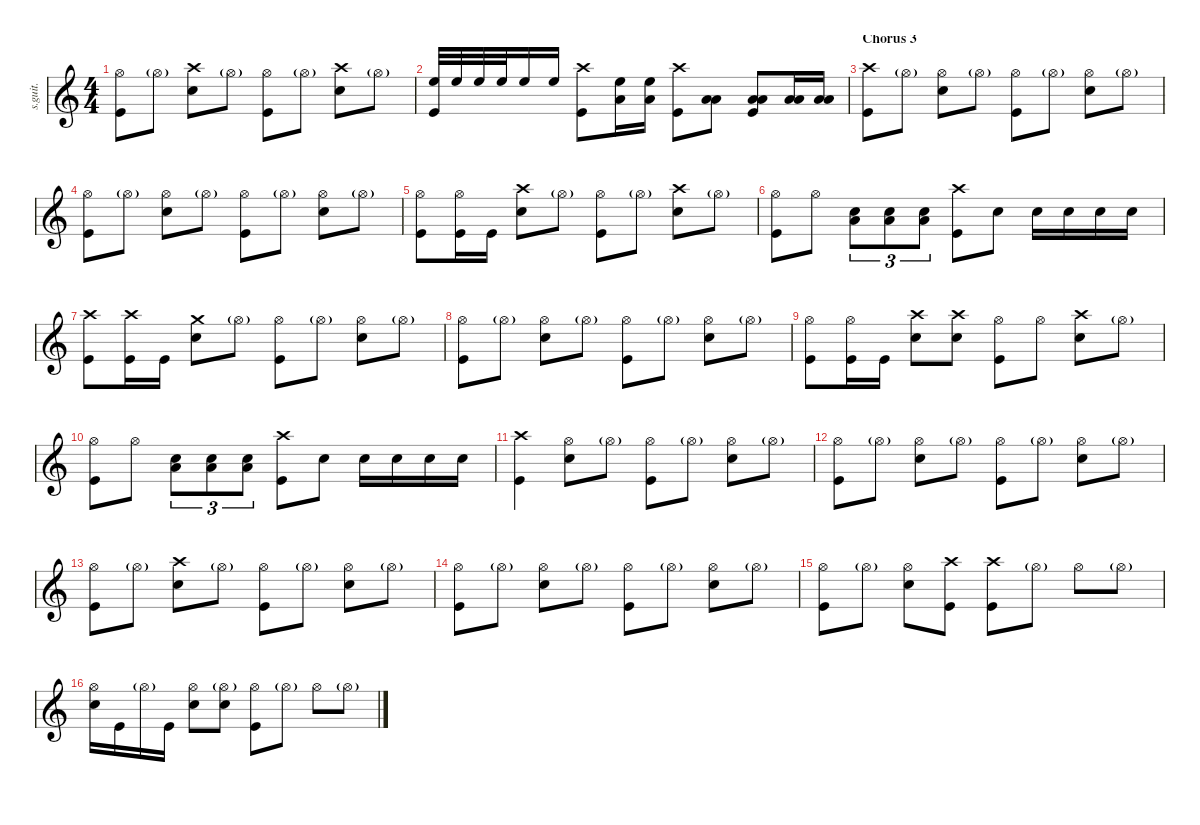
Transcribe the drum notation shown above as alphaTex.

\defaultSystemsLayout 4
\hideDynamics
\bracketExtendMode nobrackets
\track ("Lars Ulrich" "s.guit.") {instrument percussion}
\staff {score}
\articulation defaults
\ts (4 4)
\tempo (90 hide)
\clef g2
\ks c
("Hi-Hat (open)" "Kick (hit)").8{lyrics (0 "") lyrics (1 "") lyrics (2 "") lyrics (3 "") lyrics (4 "") dy f} "Hi-Hat (open)"{g}.8{lyrics (0 "") lyrics (1 "") lyrics (2 "") lyrics (3 "") lyrics (4 "") dy p} ("Crash high (hit)" "Snare (hit) 2").8{lyrics (0 "") lyrics (1 "") lyrics (2 "") lyrics (3 "") lyrics (4 "") dy f} "Hi-Hat (open)"{g}.8{lyrics (0 "") lyrics (1 "") lyrics (2 "") lyrics (3 "") lyrics (4 "") dy p} ("Hi-Hat (open)" "Kick (hit)").8{lyrics (0 "") lyrics (1 "") lyrics (2 "") lyrics (3 "") lyrics (4 "") dy f} "Hi-Hat (open)"{g}.8{lyrics (0 "") lyrics (1 "") lyrics (2 "") lyrics (3 "") lyrics (4 "") dy p} ("Crash high (hit)" "Snare (hit) 2").8{lyrics (0 "") lyrics (1 "") lyrics (2 "") lyrics (3 "") lyrics (4 "") dy f} "Hi-Hat (open)"{g}.8{lyrics (0 "") lyrics (1 "") lyrics (2 "") lyrics (3 "") lyrics (4 "") dy p} |
\tempo (89 hide)
("High Floor Tom (hit)" "Kick (hit)").32{lyrics (0 "") lyrics (1 "") lyrics (2 "") lyrics (3 "") lyrics (4 "") dy ff} "High Floor Tom (hit)".32{lyrics (0 "") lyrics (1 "") lyrics (2 "") lyrics (3 "") lyrics (4 "")} "High Floor Tom (hit)".32{lyrics (0 "") lyrics (1 "") lyrics (2 "") lyrics (3 "") lyrics (4 "")} "High Floor Tom (hit)".32{lyrics (0 "") lyrics (1 "") lyrics (2 "") lyrics (3 "") lyrics (4 "")} "High Floor Tom (hit)".16{lyrics (0 "") lyrics (1 "") lyrics (2 "") lyrics (3 "") lyrics (4 "")} "High Floor Tom (hit)".16{lyrics (0 "") lyrics (1 "") lyrics (2 "") lyrics (3 "") lyrics (4 "")} ("Crash high (hit)" "Kick (hit)").8{lyrics (0 "") lyrics (1 "") lyrics (2 "") lyrics (3 "") lyrics (4 "") dy f} ("High Floor Tom (hit)" "Low Tom (hit)").16{lyrics (0 "") lyrics (1 "") lyrics (2 "") lyrics (3 "") lyrics (4 "") dy ff} ("High Floor Tom (hit)" "Low Tom (hit)").16{lyrics (0 "") lyrics (1 "") lyrics (2 "") lyrics (3 "") lyrics (4 "")} ("Crash high (hit)" "Kick (hit)").8{lyrics (0 "") lyrics (1 "") lyrics (2 "") lyrics (3 "") lyrics (4 "") dy f} ("Low Tom (hit)" "Low Floor Tom (hit)").8{lyrics (0 "") lyrics (1 "") lyrics (2 "") lyrics (3 "") lyrics (4 "") dy ff} ("Kick (hit)" "Low Tom (hit)" "Low Floor Tom (hit)").8{lyrics (0 "") lyrics (1 "") lyrics (2 "") lyrics (3 "") lyrics (4 "") dy f} ("Low Tom (hit)" "Low Floor Tom (hit)").16{lyrics (0 "") lyrics (1 "") lyrics (2 "") lyrics (3 "") lyrics (4 "") dy ff} ("Low Tom (hit)" "Low Floor Tom (hit)").16{lyrics (0 "") lyrics (1 "") lyrics (2 "") lyrics (3 "") lyrics (4 "")} |
\section ("" "Chorus 3")
("Crash high (hit)" "Kick (hit)").8{lyrics (0 "") lyrics (1 "") lyrics (2 "") lyrics (3 "") lyrics (4 "") dy f} "Hi-Hat (open)"{g}.8{lyrics (0 "") lyrics (1 "") lyrics (2 "") lyrics (3 "") lyrics (4 "") dy p} ("Hi-Hat (open)" "Snare (hit) 2").8{lyrics (0 "") lyrics (1 "") lyrics (2 "") lyrics (3 "") lyrics (4 "") dy f} "Hi-Hat (open)"{g}.8{lyrics (0 "") lyrics (1 "") lyrics (2 "") lyrics (3 "") lyrics (4 "") dy p} ("Hi-Hat (open)" "Kick (hit)").8{lyrics (0 "") lyrics (1 "") lyrics (2 "") lyrics (3 "") lyrics (4 "") dy f} "Hi-Hat (open)"{g}.8{lyrics (0 "") lyrics (1 "") lyrics (2 "") lyrics (3 "") lyrics (4 "") dy p} ("Hi-Hat (open)" "Snare (hit) 2").8{lyrics (0 "") lyrics (1 "") lyrics (2 "") lyrics (3 "") lyrics (4 "") dy f} "Hi-Hat (open)"{g}.8{lyrics (0 "") lyrics (1 "") lyrics (2 "") lyrics (3 "") lyrics (4 "") dy p} |
("Hi-Hat (open)" "Kick (hit)").8{lyrics (0 "") lyrics (1 "") lyrics (2 "") lyrics (3 "") lyrics (4 "") dy f} "Hi-Hat (open)"{g}.8{lyrics (0 "") lyrics (1 "") lyrics (2 "") lyrics (3 "") lyrics (4 "") dy p} ("Hi-Hat (open)" "Snare (hit) 2").8{lyrics (0 "") lyrics (1 "") lyrics (2 "") lyrics (3 "") lyrics (4 "") dy f} "Hi-Hat (open)"{g}.8{lyrics (0 "") lyrics (1 "") lyrics (2 "") lyrics (3 "") lyrics (4 "") dy p} ("Hi-Hat (open)" "Kick (hit)").8{lyrics (0 "") lyrics (1 "") lyrics (2 "") lyrics (3 "") lyrics (4 "") dy f} "Hi-Hat (open)"{g}.8{lyrics (0 "") lyrics (1 "") lyrics (2 "") lyrics (3 "") lyrics (4 "") dy p} ("Hi-Hat (open)" "Snare (hit) 2").8{lyrics (0 "") lyrics (1 "") lyrics (2 "") lyrics (3 "") lyrics (4 "") dy f} "Hi-Hat (open)"{g}.8{lyrics (0 "") lyrics (1 "") lyrics (2 "") lyrics (3 "") lyrics (4 "") dy p} |
("Hi-Hat (open)" "Kick (hit)").8{lyrics (0 "") lyrics (1 "") lyrics (2 "") lyrics (3 "") lyrics (4 "") dy f} ("Hi-Hat (open)" "Kick (hit)").16{lyrics (0 "") lyrics (1 "") lyrics (2 "") lyrics (3 "") lyrics (4 "")} "Kick (hit)".16{lyrics (0 "") lyrics (1 "") lyrics (2 "") lyrics (3 "") lyrics (4 "")} ("Crash high (hit)" "Snare (hit) 2").8{lyrics (0 "") lyrics (1 "") lyrics (2 "") lyrics (3 "") lyrics (4 "")} "Hi-Hat (open)"{g}.8{lyrics (0 "") lyrics (1 "") lyrics (2 "") lyrics (3 "") lyrics (4 "") dy p} ("Hi-Hat (open)" "Kick (hit)").8{lyrics (0 "") lyrics (1 "") lyrics (2 "") lyrics (3 "") lyrics (4 "") dy f} "Hi-Hat (open)"{g}.8{lyrics (0 "") lyrics (1 "") lyrics (2 "") lyrics (3 "") lyrics (4 "") dy p} ("Crash high (hit)" "Snare (hit) 2").8{lyrics (0 "") lyrics (1 "") lyrics (2 "") lyrics (3 "") lyrics (4 "") dy f} "Hi-Hat (open)"{g}.8{lyrics (0 "") lyrics (1 "") lyrics (2 "") lyrics (3 "") lyrics (4 "") dy p} |
\tempo (90 hide)
("Hi-Hat (open)" "Kick (hit)").8{lyrics (0 "") lyrics (1 "") lyrics (2 "") lyrics (3 "") lyrics (4 "") dy f} "Hi-Hat (open)".8{lyrics (0 "") lyrics (1 "") lyrics (2 "") lyrics (3 "") lyrics (4 "")} ("Low Floor Tom (hit)" "Snare (hit) 2").8{tu (3 2) lyrics (0 "") lyrics (1 "") lyrics (2 "") lyrics (3 "") lyrics (4 "")} ("Low Floor Tom (hit)" "Snare (hit) 2").8{tu (3 2) lyrics (0 "") lyrics (1 "") lyrics (2 "") lyrics (3 "") lyrics (4 "")} ("Low Floor Tom (hit)" "Snare (hit) 2").8{tu (3 2) lyrics (0 "") lyrics (1 "") lyrics (2 "") lyrics (3 "") lyrics (4 "")} ("Kick (hit)" "Crash high (hit)").8{lyrics (0 "") lyrics (1 "") lyrics (2 "") lyrics (3 "") lyrics (4 "")} "Snare (hit) 2".8{lyrics (0 "") lyrics (1 "") lyrics (2 "") lyrics (3 "") lyrics (4 "")} "Snare (hit) 2".16{lyrics (0 "") lyrics (1 "") lyrics (2 "") lyrics (3 "") lyrics (4 "")} "Snare (hit) 2".16{lyrics (0 "") lyrics (1 "") lyrics (2 "") lyrics (3 "") lyrics (4 "")} "Snare (hit) 2".16{lyrics (0 "") lyrics (1 "") lyrics (2 "") lyrics (3 "") lyrics (4 "")} "Snare (hit) 2".16{lyrics (0 "") lyrics (1 "") lyrics (2 "") lyrics (3 "") lyrics (4 "")} |
("Crash high (hit)" "Kick (hit)").8{lyrics (0 "") lyrics (1 "") lyrics (2 "") lyrics (3 "") lyrics (4 "")} ("Crash high (hit)" "Kick (hit)").16{lyrics (0 "") lyrics (1 "") lyrics (2 "") lyrics (3 "") lyrics (4 "")} "Kick (hit)".16{lyrics (0 "") lyrics (1 "") lyrics (2 "") lyrics (3 "") lyrics (4 "")} ("Crash medium (hit)" "Snare (hit) 2").8{lyrics (0 "") lyrics (1 "") lyrics (2 "") lyrics (3 "") lyrics (4 "")} "Hi-Hat (open)"{g}.8{lyrics (0 "") lyrics (1 "") lyrics (2 "") lyrics (3 "") lyrics (4 "") dy p} ("Hi-Hat (open)" "Kick (hit)").8{lyrics (0 "") lyrics (1 "") lyrics (2 "") lyrics (3 "") lyrics (4 "") dy f} "Hi-Hat (open)"{g}.8{lyrics (0 "") lyrics (1 "") lyrics (2 "") lyrics (3 "") lyrics (4 "") dy p} ("Hi-Hat (open)" "Snare (hit) 2").8{lyrics (0 "") lyrics (1 "") lyrics (2 "") lyrics (3 "") lyrics (4 "") dy f} "Hi-Hat (open)"{g}.8{lyrics (0 "") lyrics (1 "") lyrics (2 "") lyrics (3 "") lyrics (4 "") dy p} |
("Hi-Hat (open)" "Kick (hit)").8{lyrics (0 "") lyrics (1 "") lyrics (2 "") lyrics (3 "") lyrics (4 "") dy f} "Hi-Hat (open)"{g}.8{lyrics (0 "") lyrics (1 "") lyrics (2 "") lyrics (3 "") lyrics (4 "") dy p} ("Hi-Hat (open)" "Snare (hit) 2").8{lyrics (0 "") lyrics (1 "") lyrics (2 "") lyrics (3 "") lyrics (4 "") dy f} "Hi-Hat (open)"{g}.8{lyrics (0 "") lyrics (1 "") lyrics (2 "") lyrics (3 "") lyrics (4 "") dy p} ("Hi-Hat (open)" "Kick (hit)").8{lyrics (0 "") lyrics (1 "") lyrics (2 "") lyrics (3 "") lyrics (4 "") dy f} "Hi-Hat (open)"{g}.8{lyrics (0 "") lyrics (1 "") lyrics (2 "") lyrics (3 "") lyrics (4 "") dy p} ("Hi-Hat (open)" "Snare (hit) 2").8{lyrics (0 "") lyrics (1 "") lyrics (2 "") lyrics (3 "") lyrics (4 "") dy f} "Hi-Hat (open)"{g}.8{lyrics (0 "") lyrics (1 "") lyrics (2 "") lyrics (3 "") lyrics (4 "") dy p} |
\tempo (89 hide)
("Hi-Hat (open)" "Kick (hit)").8{lyrics (0 "") lyrics (1 "") lyrics (2 "") lyrics (3 "") lyrics (4 "") dy f} ("Hi-Hat (open)" "Kick (hit)").16{lyrics (0 "") lyrics (1 "") lyrics (2 "") lyrics (3 "") lyrics (4 "")} "Kick (hit)".16{lyrics (0 "") lyrics (1 "") lyrics (2 "") lyrics (3 "") lyrics (4 "")} ("Crash high (hit)" "Snare (hit) 2").8{lyrics (0 "") lyrics (1 "") lyrics (2 "") lyrics (3 "") lyrics (4 "")} ("Crash high (hit)" "Snare (hit) 2").8{lyrics (0 "") lyrics (1 "") lyrics (2 "") lyrics (3 "") lyrics (4 "")} ("Hi-Hat (open)" "Kick (hit)").8{lyrics (0 "") lyrics (1 "") lyrics (2 "") lyrics (3 "") lyrics (4 "")} "Hi-Hat (open)".8{lyrics (0 "") lyrics (1 "") lyrics (2 "") lyrics (3 "") lyrics (4 "")} ("Crash high (hit)" "Snare (hit) 2").8{lyrics (0 "") lyrics (1 "") lyrics (2 "") lyrics (3 "") lyrics (4 "")} "Hi-Hat (open)"{g}.8{lyrics (0 "") lyrics (1 "") lyrics (2 "") lyrics (3 "") lyrics (4 "") dy p} |
\tempo (87 hide)
("Hi-Hat (open)" "Kick (hit)").8{lyrics (0 "") lyrics (1 "") lyrics (2 "") lyrics (3 "") lyrics (4 "") dy f} "Hi-Hat (open)".8{lyrics (0 "") lyrics (1 "") lyrics (2 "") lyrics (3 "") lyrics (4 "")} ("Low Floor Tom (hit)" "Snare (hit) 2").8{tu (3 2) lyrics (0 "") lyrics (1 "") lyrics (2 "") lyrics (3 "") lyrics (4 "")} ("Low Floor Tom (hit)" "Snare (hit) 2").8{tu (3 2) lyrics (0 "") lyrics (1 "") lyrics (2 "") lyrics (3 "") lyrics (4 "")} ("Low Floor Tom (hit)" "Snare (hit) 2").8{tu (3 2) lyrics (0 "") lyrics (1 "") lyrics (2 "") lyrics (3 "") lyrics (4 "")} ("Kick (hit)" "Crash high (hit)").8{lyrics (0 "") lyrics (1 "") lyrics (2 "") lyrics (3 "") lyrics (4 "")} "Snare (hit) 2".8{lyrics (0 "") lyrics (1 "") lyrics (2 "") lyrics (3 "") lyrics (4 "")} "Snare (hit) 2".16{lyrics (0 "") lyrics (1 "") lyrics (2 "") lyrics (3 "") lyrics (4 "")} "Snare (hit) 2".16{lyrics (0 "") lyrics (1 "") lyrics (2 "") lyrics (3 "") lyrics (4 "")} "Snare (hit) 2".16{lyrics (0 "") lyrics (1 "") lyrics (2 "") lyrics (3 "") lyrics (4 "")} "Snare (hit) 2".16{lyrics (0 "") lyrics (1 "") lyrics (2 "") lyrics (3 "") lyrics (4 "")} |
("Crash high (hit)" "Kick (hit)").4{lyrics (0 "") lyrics (1 "") lyrics (2 "") lyrics (3 "") lyrics (4 "")} ("Hi-Hat (open)" "Snare (hit) 2").8{lyrics (0 "") lyrics (1 "") lyrics (2 "") lyrics (3 "") lyrics (4 "")} "Hi-Hat (open)"{g}.8{lyrics (0 "") lyrics (1 "") lyrics (2 "") lyrics (3 "") lyrics (4 "") dy p} ("Hi-Hat (open)" "Kick (hit)").8{lyrics (0 "") lyrics (1 "") lyrics (2 "") lyrics (3 "") lyrics (4 "") dy f} "Hi-Hat (open)"{g}.8{lyrics (0 "") lyrics (1 "") lyrics (2 "") lyrics (3 "") lyrics (4 "") dy p} ("Hi-Hat (open)" "Snare (hit) 2").8{lyrics (0 "") lyrics (1 "") lyrics (2 "") lyrics (3 "") lyrics (4 "") dy f} "Hi-Hat (open)"{g}.8{lyrics (0 "") lyrics (1 "") lyrics (2 "") lyrics (3 "") lyrics (4 "") dy p} |
\tempo (89 hide)
("Hi-Hat (open)" "Kick (hit)").8{lyrics (0 "") lyrics (1 "") lyrics (2 "") lyrics (3 "") lyrics (4 "") dy f} "Hi-Hat (open)"{g}.8{lyrics (0 "") lyrics (1 "") lyrics (2 "") lyrics (3 "") lyrics (4 "") dy p} ("Hi-Hat (open)" "Snare (hit) 2").8{lyrics (0 "") lyrics (1 "") lyrics (2 "") lyrics (3 "") lyrics (4 "") dy f} "Hi-Hat (open)"{g}.8{lyrics (0 "") lyrics (1 "") lyrics (2 "") lyrics (3 "") lyrics (4 "") dy p} ("Hi-Hat (open)" "Kick (hit)").8{lyrics (0 "") lyrics (1 "") lyrics (2 "") lyrics (3 "") lyrics (4 "") dy f} "Hi-Hat (open)"{g}.8{lyrics (0 "") lyrics (1 "") lyrics (2 "") lyrics (3 "") lyrics (4 "") dy p} ("Hi-Hat (open)" "Snare (hit) 2").8{lyrics (0 "") lyrics (1 "") lyrics (2 "") lyrics (3 "") lyrics (4 "") dy f} "Hi-Hat (open)"{g}.8{lyrics (0 "") lyrics (1 "") lyrics (2 "") lyrics (3 "") lyrics (4 "") dy p} |
("Hi-Hat (open)" "Kick (hit)").8{lyrics (0 "") lyrics (1 "") lyrics (2 "") lyrics (3 "") lyrics (4 "") dy f} "Hi-Hat (open)"{g}.8{lyrics (0 "") lyrics (1 "") lyrics (2 "") lyrics (3 "") lyrics (4 "") dy p} ("Crash high (hit)" "Snare (hit) 2").8{lyrics (0 "") lyrics (1 "") lyrics (2 "") lyrics (3 "") lyrics (4 "") dy f} "Hi-Hat (open)"{g}.8{lyrics (0 "") lyrics (1 "") lyrics (2 "") lyrics (3 "") lyrics (4 "") dy p} ("Hi-Hat (open)" "Kick (hit)").8{lyrics (0 "") lyrics (1 "") lyrics (2 "") lyrics (3 "") lyrics (4 "") dy f} "Hi-Hat (open)"{g}.8{lyrics (0 "") lyrics (1 "") lyrics (2 "") lyrics (3 "") lyrics (4 "") dy p} ("Hi-Hat (open)" "Snare (hit) 2").8{lyrics (0 "") lyrics (1 "") lyrics (2 "") lyrics (3 "") lyrics (4 "") dy f} "Hi-Hat (open)"{g}.8{lyrics (0 "") lyrics (1 "") lyrics (2 "") lyrics (3 "") lyrics (4 "") dy p} |
\tempo (90 hide)
("Hi-Hat (open)" "Kick (hit)").8{lyrics (0 "") lyrics (1 "") lyrics (2 "") lyrics (3 "") lyrics (4 "") dy f} "Hi-Hat (open)"{g}.8{lyrics (0 "") lyrics (1 "") lyrics (2 "") lyrics (3 "") lyrics (4 "") dy p} ("Hi-Hat (open)" "Snare (hit) 2").8{lyrics (0 "") lyrics (1 "") lyrics (2 "") lyrics (3 "") lyrics (4 "") dy f} "Hi-Hat (open)"{g}.8{lyrics (0 "") lyrics (1 "") lyrics (2 "") lyrics (3 "") lyrics (4 "") dy p} ("Hi-Hat (open)" "Kick (hit)").8{lyrics (0 "") lyrics (1 "") lyrics (2 "") lyrics (3 "") lyrics (4 "") dy f} "Hi-Hat (open)"{g}.8{lyrics (0 "") lyrics (1 "") lyrics (2 "") lyrics (3 "") lyrics (4 "") dy p} ("Hi-Hat (open)" "Snare (hit) 2").8{lyrics (0 "") lyrics (1 "") lyrics (2 "") lyrics (3 "") lyrics (4 "") dy f} "Hi-Hat (open)"{g}.8{lyrics (0 "") lyrics (1 "") lyrics (2 "") lyrics (3 "") lyrics (4 "") dy p} |
\tempo (89 hide)
("Hi-Hat (open)" "Kick (hit)").8{lyrics (0 "") lyrics (1 "") lyrics (2 "") lyrics (3 "") lyrics (4 "") dy f} "Hi-Hat (open)"{g}.8{lyrics (0 "") lyrics (1 "") lyrics (2 "") lyrics (3 "") lyrics (4 "") dy p} ("Hi-Hat (open)" "Snare (hit) 2").8{lyrics (0 "") lyrics (1 "") lyrics (2 "") lyrics (3 "") lyrics (4 "") dy f} ("Crash high (hit)" "Kick (hit)").8{lyrics (0 "") lyrics (1 "") lyrics (2 "") lyrics (3 "") lyrics (4 "")} ("Crash high (hit)" "Kick (hit)").8{lyrics (0 "") lyrics (1 "") lyrics (2 "") lyrics (3 "") lyrics (4 "")} "Hi-Hat (open)"{g}.8{lyrics (0 "") lyrics (1 "") lyrics (2 "") lyrics (3 "") lyrics (4 "") dy p} "Hi-Hat (open)".8{lyrics (0 "") lyrics (1 "") lyrics (2 "") lyrics (3 "") lyrics (4 "") dy f} "Hi-Hat (open)"{g}.8{lyrics (0 "") lyrics (1 "") lyrics (2 "") lyrics (3 "") lyrics (4 "") dy p} |
\tempo (90 hide)
("Hi-Hat (open)" "Snare (hit) 2").16{lyrics (0 "") lyrics (1 "") lyrics (2 "") lyrics (3 "") lyrics (4 "") dy f} "Kick (hit)".16{lyrics (0 "") lyrics (1 "") lyrics (2 "") lyrics (3 "") lyrics (4 "") dy fff} "Hi-Hat (open)"{g}.16{lyrics (0 "") lyrics (1 "") lyrics (2 "") lyrics (3 "") lyrics (4 "") dy p} "Kick (hit)".16{lyrics (0 "") lyrics (1 "") lyrics (2 "") lyrics (3 "") lyrics (4 "") dy fff} ("Hi-Hat (open)" "Snare (hit) 2").8{lyrics (0 "") lyrics (1 "") lyrics (2 "") lyrics (3 "") lyrics (4 "") dy f} ("Hi-Hat (open)"{g} "Snare (hit) 2").8{lyrics (0 "") lyrics (1 "") lyrics (2 "") lyrics (3 "") lyrics (4 "")} ("Hi-Hat (open)" "Kick (hit)").8{lyrics (0 "") lyrics (1 "") lyrics (2 "") lyrics (3 "") lyrics (4 "")} "Hi-Hat (open)"{g}.8{lyrics (0 "") lyrics (1 "") lyrics (2 "") lyrics (3 "") lyrics (4 "") dy p} "Hi-Hat (open)".8{lyrics (0 "") lyrics (1 "") lyrics (2 "") lyrics (3 "") lyrics (4 "") dy f} "Hi-Hat (open)"{g}.8{lyrics (0 "") lyrics (1 "") lyrics (2 "") lyrics (3 "") lyrics (4 "") dy p}
